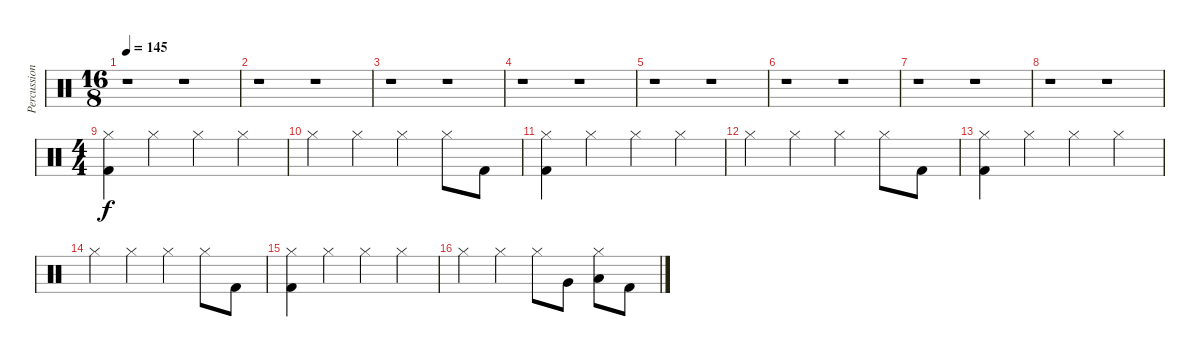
\track ("Percussion" "Percussion") {instrument percussion}
\staff {score}
\articulation defaults
\ts (16 8)
\tempo 145
\clef neutral
\ks c
r.1{dy f} r.1 |
r.1 r.1 |
r.1 r.1 |
r.1 r.1 |
r.1 r.1 |
r.1 r.1 |
r.1 r.1 |
r.1 r.1 |
\ts (4 4)
("Hi-Hat (closed)" "Kick (hit) 2").4 "Hi-Hat (closed)".4 "Hi-Hat (closed)".4 "Hi-Hat (closed)".4 |
"Hi-Hat (closed)".4 "Hi-Hat (closed)".4 "Hi-Hat (closed)".4 "Hi-Hat (closed)".8 "Kick (hit) 2".8 |
("Hi-Hat (closed)" "Kick (hit) 2").4 "Hi-Hat (closed)".4 "Hi-Hat (closed)".4 "Hi-Hat (closed)".4 |
"Hi-Hat (closed)".4 "Hi-Hat (closed)".4 "Hi-Hat (closed)".4 "Hi-Hat (closed)".8 "Kick (hit) 2".8 |
("Hi-Hat (closed)" "Kick (hit) 2").4 "Hi-Hat (closed)".4 "Hi-Hat (closed)".4 "Hi-Hat (closed)".4 |
"Hi-Hat (closed)".4 "Hi-Hat (closed)".4 "Hi-Hat (closed)".4 "Hi-Hat (closed)".8 "Kick (hit) 2".8 |
("Hi-Hat (closed)" "Kick (hit) 2").4 "Hi-Hat (closed)".4 "Hi-Hat (closed)".4 "Hi-Hat (closed)".4 |
"Hi-Hat (closed)".4 "Hi-Hat (closed)".4 "Hi-Hat (closed)".8 "Very Low Tom (hit)".8 ("Hi-Hat (closed)" "Low Floor Tom (hit)").8 "Kick (hit) 2".8
